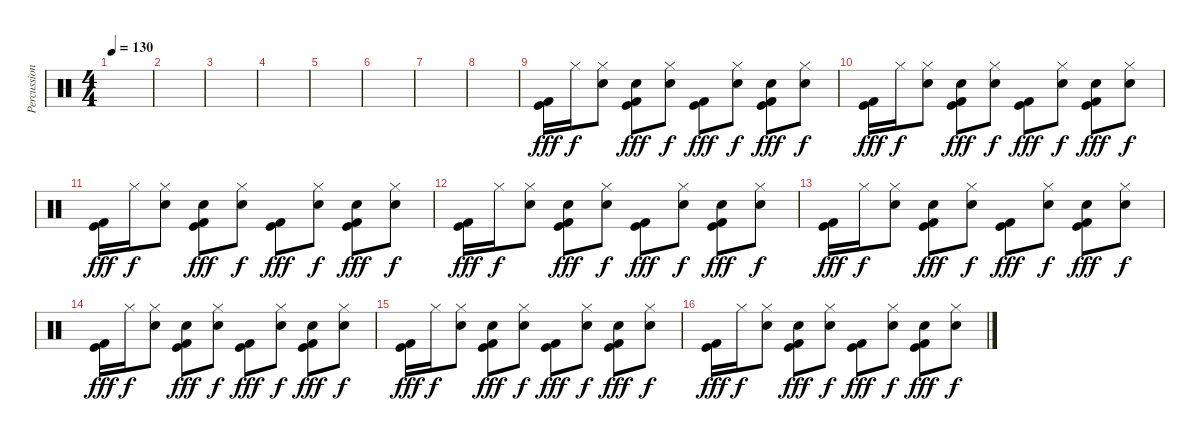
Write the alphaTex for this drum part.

\track ("Percussions" "Percussion") {instrument percussion}
\staff {score}
\articulation defaults
\ts (4 4)
\tempo 130
\clef neutral
\ks c
|
|
|
|
|
|
|
|
("Kick (hit)" "Kick (hit) 2").16{dy fff} "Hi-Hat (closed)".16{dy f} ("Hi-Hat (closed)" "Hand Clap (hit)").8 ("Electric Snare (hit)" "Kick (hit)" "Kick (hit) 2").8{dy fff} ("Hi-Hat (closed)" "Hand Clap (hit)").8{dy f} ("Kick (hit)" "Kick (hit) 2").8{dy fff} ("Hi-Hat (closed)" "Hand Clap (hit)").8{dy f} ("Electric Snare (hit)" "Kick (hit)" "Kick (hit) 2").8{dy fff} ("Hi-Hat (closed)" "Hand Clap (hit)").8{dy f} |
("Kick (hit)" "Kick (hit) 2").16{dy fff} "Hi-Hat (closed)".16{dy f} ("Hi-Hat (closed)" "Hand Clap (hit)").8 ("Electric Snare (hit)" "Kick (hit)" "Kick (hit) 2").8{dy fff} ("Hi-Hat (closed)" "Hand Clap (hit)").8{dy f} ("Kick (hit)" "Kick (hit) 2").8{dy fff} ("Hi-Hat (closed)" "Hand Clap (hit)").8{dy f} ("Electric Snare (hit)" "Kick (hit)" "Kick (hit) 2").8{dy fff} ("Hi-Hat (closed)" "Hand Clap (hit)").8{dy f} |
("Kick (hit)" "Kick (hit) 2").16{dy fff} "Hi-Hat (closed)".16{dy f} ("Hi-Hat (closed)" "Hand Clap (hit)").8 ("Electric Snare (hit)" "Kick (hit)" "Kick (hit) 2").8{dy fff} ("Hi-Hat (closed)" "Hand Clap (hit)").8{dy f} ("Kick (hit)" "Kick (hit) 2").8{dy fff} ("Hi-Hat (closed)" "Hand Clap (hit)").8{dy f} ("Electric Snare (hit)" "Kick (hit)" "Kick (hit) 2").8{dy fff} ("Hi-Hat (closed)" "Hand Clap (hit)").8{dy f} |
("Kick (hit)" "Kick (hit) 2").16{dy fff} "Hi-Hat (closed)".16{dy f} ("Hi-Hat (closed)" "Hand Clap (hit)").8 ("Electric Snare (hit)" "Kick (hit)" "Kick (hit) 2").8{dy fff} ("Hi-Hat (closed)" "Hand Clap (hit)").8{dy f} ("Kick (hit)" "Kick (hit) 2").8{dy fff} ("Hi-Hat (closed)" "Hand Clap (hit)").8{dy f} ("Electric Snare (hit)" "Kick (hit)" "Kick (hit) 2").8{dy fff} ("Hi-Hat (closed)" "Hand Clap (hit)").8{dy f} |
("Kick (hit)" "Kick (hit) 2").16{dy fff} "Hi-Hat (closed)".16{dy f} ("Hi-Hat (closed)" "Hand Clap (hit)").8 ("Electric Snare (hit)" "Kick (hit)" "Kick (hit) 2").8{dy fff} ("Hi-Hat (closed)" "Hand Clap (hit)").8{dy f} ("Kick (hit)" "Kick (hit) 2").8{dy fff} ("Hi-Hat (closed)" "Hand Clap (hit)").8{dy f} ("Electric Snare (hit)" "Kick (hit)" "Kick (hit) 2").8{dy fff} ("Hi-Hat (closed)" "Hand Clap (hit)").8{dy f} |
("Kick (hit)" "Kick (hit) 2").16{dy fff} "Hi-Hat (closed)".16{dy f} ("Hi-Hat (closed)" "Hand Clap (hit)").8 ("Electric Snare (hit)" "Kick (hit)" "Kick (hit) 2").8{dy fff} ("Hi-Hat (closed)" "Hand Clap (hit)").8{dy f} ("Kick (hit)" "Kick (hit) 2").8{dy fff} ("Hi-Hat (closed)" "Hand Clap (hit)").8{dy f} ("Electric Snare (hit)" "Kick (hit)" "Kick (hit) 2").8{dy fff} ("Hi-Hat (closed)" "Hand Clap (hit)").8{dy f} |
("Kick (hit)" "Kick (hit) 2").16{dy fff} "Hi-Hat (closed)".16{dy f} ("Hi-Hat (closed)" "Hand Clap (hit)").8 ("Electric Snare (hit)" "Kick (hit)" "Kick (hit) 2").8{dy fff} ("Hi-Hat (closed)" "Hand Clap (hit)").8{dy f} ("Kick (hit)" "Kick (hit) 2").8{dy fff} ("Hi-Hat (closed)" "Hand Clap (hit)").8{dy f} ("Electric Snare (hit)" "Kick (hit)" "Kick (hit) 2").8{dy fff} ("Hi-Hat (closed)" "Hand Clap (hit)").8{dy f} |
("Kick (hit)" "Kick (hit) 2").16{dy fff} "Hi-Hat (closed)".16{dy f} ("Hi-Hat (closed)" "Hand Clap (hit)").8 ("Electric Snare (hit)" "Kick (hit)" "Kick (hit) 2").8{dy fff} ("Hi-Hat (closed)" "Hand Clap (hit)").8{dy f} ("Kick (hit)" "Kick (hit) 2").8{dy fff} ("Hi-Hat (closed)" "Hand Clap (hit)").8{dy f} ("Electric Snare (hit)" "Kick (hit)" "Kick (hit) 2").8{dy fff} ("Hi-Hat (closed)" "Hand Clap (hit)").8{dy f}
